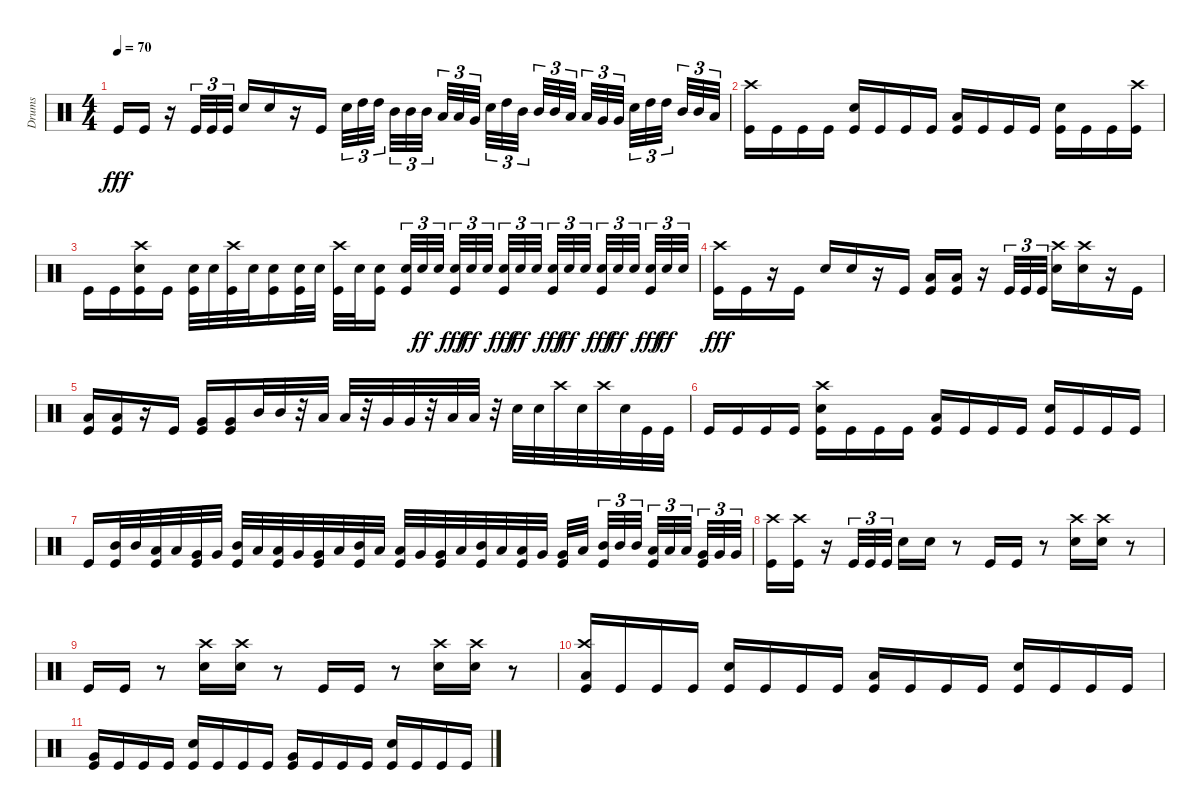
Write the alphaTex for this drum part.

\track ("Drums" "Drums") {instrument percussion}
\staff {score}
\articulation defaults
\ts (4 4)
\tempo 70
\clef neutral
\ks c "Kick (hit)".16{dy fff} "Kick (hit)".16
r.16 "Kick (hit)".32{tu (3 2)} "Kick (hit)".32{tu (3 2)} "Kick (hit)".32{tu (3 2)} "Snare (hit) 2".16 "Snare (hit) 2".16 r.16 "Kick (hit)".16 "Snare (hit) 2".32{tu (3 2)} "High Tom (hit)".32{tu (3 2)} "High Tom (hit)".32{tu (3 2) beam splitsecondary} "Mid Tom (hit)".32{tu (3 2)} "Mid Tom (hit)".32{tu (3 2)} "Mid Tom (hit)".32{tu (3 2) beam splitsecondary} "Low Tom (hit)".32{tu (3 2)} "Low Tom (hit)".32{tu (3 2)} "Very Low Tom (hit)".32{tu (3 2) beam splitsecondary} "Snare (hit) 2".32{tu (3 2)} "High Tom (hit)".32{tu (3 2)} "Mid Tom (hit)".32{tu (3 2)} "Mid Tom (hit)".32{tu (3 2)} "Mid Tom (hit)".32{tu (3 2)} "Low Tom (hit)".32{tu (3 2) beam splitsecondary} "Low Tom (hit)".32{tu (3 2)} "Very Low Tom (hit)".32{tu (3 2)} "Very Low Tom (hit)".32{tu (3 2) beam splitsecondary} "Snare (hit) 2".32{tu (3 2)} "High Tom (hit)".32{tu (3 2)} "High Tom (hit)".32{tu (3 2) beam splitsecondary} "Mid Tom (hit)".32{tu (3 2)} "Mid Tom (hit)".32{tu (3 2)} "Low Tom (hit)".32{tu (3 2)} |
("Crash high (hit)" "Kick (hit)").16 "Kick (hit)".16 "Kick (hit)".16 "Kick (hit)".16 ("Snare (hit) 2" "Kick (hit)").16 "Kick (hit)".16 "Kick (hit)".16 "Kick (hit)".16 ("Low Floor Tom (hit)" "Kick (hit)").16 "Kick (hit)".16 "Kick (hit)".16 "Kick (hit)".16 ("Snare (hit) 2" "Kick (hit)").16 "Kick (hit)".16 "Kick (hit)".16 ("Crash high (hit)" "Kick (hit)").16 |
"Kick (hit)".16 "Kick (hit)".16 ("Snare (hit) 2" "Crash high (hit)" "Kick (hit)").16 "Kick (hit)".16 ("Snare (hit) 2" "Kick (hit)").32 "Snare (hit) 2".32 ("Crash high (hit)" "Kick (hit)").32 "Snare (hit) 2".32 ("Snare (hit) 2" "Kick (hit)").16 ("Snare (hit) 2" "Kick (hit)").32 "Snare (hit) 2".32 ("Crash high (hit)" "Kick (hit)").32 "Snare (hit) 2".32 ("Snare (hit) 2" "Kick (hit)").16{beam splitsecondary} ("Snare (hit) 2" "Kick (hit)").32{tu (3 2)} "Snare (hit) 2".32{tu (3 2) dy ff} "Snare (hit) 2".32{tu (3 2) beam splitsecondary} ("Snare (hit) 2" "Kick (hit)").32{tu (3 2) dy fff} "Snare (hit) 2".32{tu (3 2) dy ff} "Snare (hit) 2".32{tu (3 2)} ("Snare (hit) 2" "Kick (hit)").32{tu (3 2) dy fff} "Snare (hit) 2".32{tu (3 2) dy ff} "Snare (hit) 2".32{tu (3 2) beam splitsecondary} ("Snare (hit) 2" "Kick (hit)").32{tu (3 2) dy fff} "Snare (hit) 2".32{tu (3 2) dy ff} "Snare (hit) 2".32{tu (3 2) beam splitsecondary} ("Snare (hit) 2" "Kick (hit)").32{tu (3 2) dy fff} "Snare (hit) 2".32{tu (3 2) dy ff} "Snare (hit) 2".32{tu (3 2) beam splitsecondary} ("Snare (hit) 2" "Kick (hit)").32{tu (3 2) dy fff} "Snare (hit) 2".32{tu (3 2) dy ff} "Snare (hit) 2".32{tu (3 2)} |
("Crash high (hit)" "Kick (hit)").16{dy fff volume 12} "Kick (hit)".16 r.16 "Kick (hit)".16{volume 12} "Snare (hit) 2".16 "Snare (hit) 2".16 r.16 "Kick (hit)".16{volume 12} ("Low Floor Tom (hit)" "Kick (hit)").16{volume 12} ("Low Floor Tom (hit)" "Kick (hit)").16{volume 12} r.16 "Kick (hit)".32{tu (3 2) volume 12} "Kick (hit)".32{tu (3 2) volume 11} "Kick (hit)".32{tu (3 2)} ("Snare (hit) 2" "Crash high (hit)").16 ("Snare (hit) 2" "Crash high (hit)").16{volume 11} r.16 "Kick (hit)".16{volume 11} |
("Low Floor Tom (hit)" "Kick (hit)").16 ("Low Floor Tom (hit)" "Kick (hit)").16{volume 11} r.16 "Kick (hit)".16{volume 11} ("Very Low Tom (hit)" "Kick (hit)").16{volume 10} ("Very Low Tom (hit)" "Kick (hit)").16 "Mid Tom (hit)".32{volume 10} "Mid Tom (hit)".32{volume 10} r.32 "Low Tom (hit)".32 "Low Tom (hit)".32{volume 10} r.32 "Very Low Tom (hit)".32 "Very Low Tom (hit)".32{volume 10} r.32 "Low Tom (hit)".32{volume 10} "Low Tom (hit)".32 r.32 "Snare (hit) 2".32{volume 10} "Snare (hit) 2".32 "Crash high (hit)".32{volume 10} "Snare (hit) 2".32 "Crash high (hit)".32 "Snare (hit) 2".32{volume 10} "Kick (hit)".32 "Kick (hit)".32{volume 9} |
"Kick (hit)".16 "Kick (hit)".16{volume 9} "Kick (hit)".16{volume 9} "Kick (hit)".16 ("Crash high (hit)" "Snare (hit) 2" "Kick (hit)").16{volume 9} "Kick (hit)".16{volume 9} "Kick (hit)".16{volume 9} "Kick (hit)".16{volume 9} ("Low Tom (hit)" "Kick (hit)").16 "Kick (hit)".16{volume 8} "Kick (hit)".16{volume 8} "Kick (hit)".16{volume 8} ("Snare (hit) 2" "Kick (hit)").16{volume 8} "Kick (hit)".16{volume 8} "Kick (hit)".16{volume 8} "Kick (hit)".16{volume 8} |
"Kick (hit)".16{volume 8} ("Mid Tom (hit)" "Kick (hit)").32{volume 8} "Mid Tom (hit)".32{volume 8} ("Low Tom (hit)" "Kick (hit)").32{volume 8} "Low Tom (hit)".32{volume 8} ("Very Low Tom (hit)" "Kick (hit)").32{volume 8} "Very Low Tom (hit)".32{volume 8} ("Mid Tom (hit)" "Kick (hit)").32{volume 7} "Low Tom (hit)".32{volume 7} ("Low Tom (hit)" "Kick (hit)").32{volume 7} "Very Low Tom (hit)".32{volume 7} ("Very Low Tom (hit)" "Kick (hit)").32{volume 7} "Low Tom (hit)".32{volume 7} ("Mid Tom (hit)" "Kick (hit)").32{volume 7} "Low Tom (hit)".32{volume 7} ("Low Tom (hit)" "Kick (hit)").32{volume 7} "Very Low Tom (hit)".32{volume 7} ("Very Low Tom (hit)" "Kick (hit)").32{volume 7} "Low Tom (hit)".32{volume 7} ("Mid Tom (hit)" "Kick (hit)").32{volume 7} "Low Tom (hit)".32{volume 7} ("Low Tom (hit)" "Kick (hit)").32{volume 7} "Very Low Tom (hit)".32{volume 7} ("Very Low Tom (hit)" "Kick (hit)").32{volume 7} "Low Tom (hit)".32{volume 7 beam splitsecondary} ("Mid Tom (hit)" "Kick (hit)").32{tu (3 2) volume 6} "Mid Tom (hit)".32{tu (3 2) volume 6} "Mid Tom (hit)".32{tu (3 2) volume 6 beam splitsecondary} ("Low Tom (hit)" "Kick (hit)").32{tu (3 2) volume 6} "Low Tom (hit)".32{tu (3 2) volume 6} "Low Tom (hit)".32{tu (3 2) volume 6 beam splitsecondary} ("Very Low Tom (hit)" "Kick (hit)").32{tu (3 2) volume 6} "Very Low Tom (hit)".32{tu (3 2) volume 6} "Very Low Tom (hit)".32{tu (3 2) volume 6} |
("Crash high (hit)" "Kick (hit)").16{volume 6} ("Crash high (hit)" "Kick (hit)").16{volume 6} r.16 "Kick (hit)".32{tu (3 2) volume 6} "Kick (hit)".32{tu (3 2) volume 6} "Kick (hit)".32{tu (3 2) volume 6} "Snare (hit) 2".16{volume 6} "Snare (hit) 2".16{volume 6} r.8 "Kick (hit)".16{volume 6} "Kick (hit)".16{volume 5} r.8 ("Crash high (hit)" "Snare (hit) 2").16{volume 5} ("Crash high (hit)" "Snare (hit) 2").16{volume 5} r.8 |
"Kick (hit)".16{volume 5} "Kick (hit)".16{volume 4} r.8 ("Crash high (hit)" "Snare (hit) 2").16{volume 4} ("Crash high (hit)" "Snare (hit) 2").16{volume 4} r.8 "Kick (hit)".16{volume 4} "Kick (hit)".16{volume 4} r.8 ("Crash high (hit)" "Snare (hit) 2").16{volume 4} ("Crash high (hit)" "Snare (hit) 2").16{volume 3} r.8 |
("Low Floor Tom (hit)" "Crash high (hit)" "Kick (hit)").16{volume 3} "Kick (hit)".16{volume 3} "Kick (hit)".16{volume 3} "Kick (hit)".16{volume 3} ("Snare (hit) 2" "Kick (hit)").16{volume 3} "Kick (hit)".16{volume 3} "Kick (hit)".16{volume 2} "Kick (hit)".16{volume 2} ("Low Floor Tom (hit)" "Kick (hit)").16{volume 2} "Kick (hit)".16{volume 2} "Kick (hit)".16{volume 2} "Kick (hit)".16{volume 2} ("Snare (hit) 2" "Kick (hit)").16{volume 2} "Kick (hit)".16{volume 2} "Kick (hit)".16{volume 2} "Kick (hit)".16{volume 2} |
("Very Low Tom (hit)" "Kick (hit)").16{volume 2} "Kick (hit)".16{volume 1} "Kick (hit)".16{volume 1} "Kick (hit)".16{volume 1} ("Snare (hit) 2" "Kick (hit)").16{volume 1} "Kick (hit)".16{volume 1} "Kick (hit)".16{volume 1} "Kick (hit)".16{volume 1} ("Very Low Tom (hit)" "Kick (hit)").16{volume 1} "Kick (hit)".16{volume 1} "Kick (hit)".16{volume 0} "Kick (hit)".16{volume 0} ("Snare (hit) 2" "Kick (hit)").16{volume 0} "Kick (hit)".16{volume 0} "Kick (hit)".16{volume 0} "Kick (hit)".16{volume 0}
